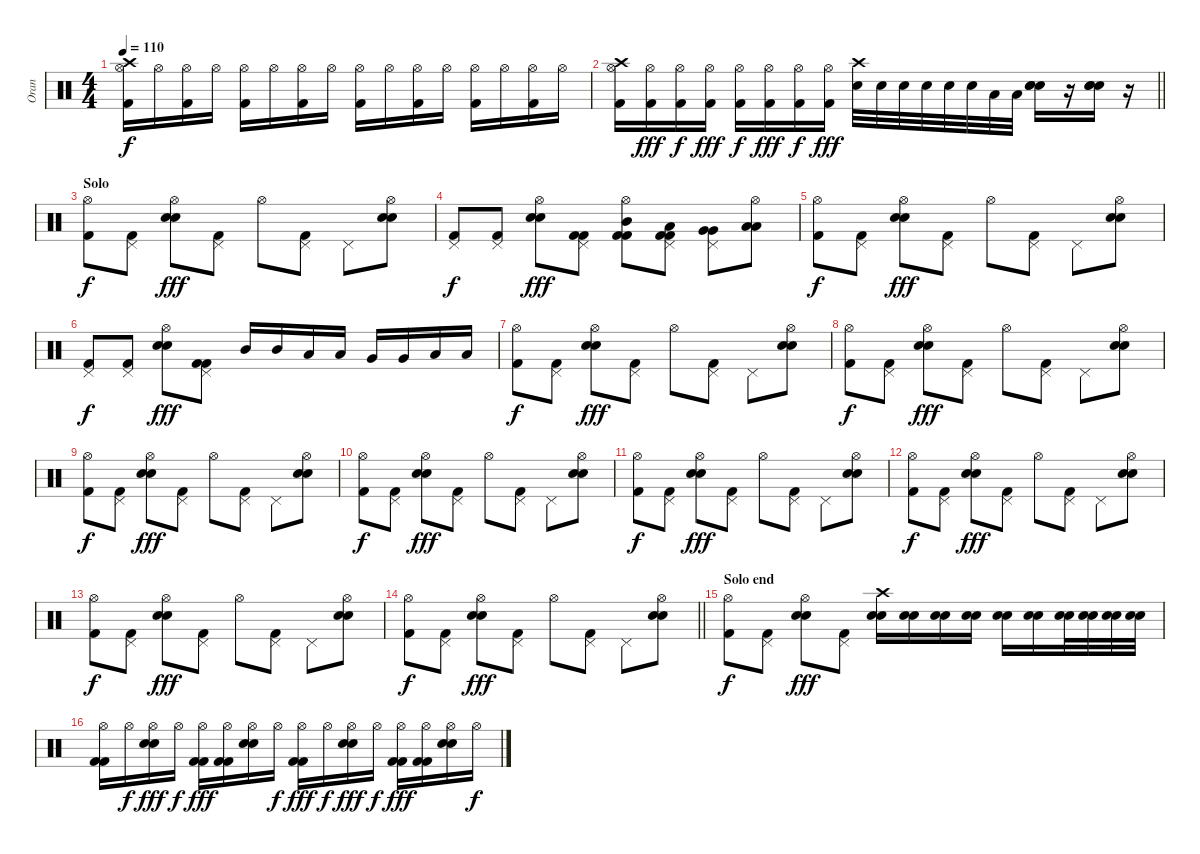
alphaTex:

\track ("Oran" "Oran") {instrument percussion}
\staff {score}
\articulation defaults
\ts (4 4)
\tempo 110
\clef neutral
\ks c
("Hi-Hat (open)" "Crash high (hit)" "Kick (hit) 2").16{dy f} "Hi-Hat (open)".16 ("Hi-Hat (open)" "Kick (hit) 2").16 "Hi-Hat (open)".16 ("Hi-Hat (open)" "Kick (hit) 2").16 "Hi-Hat (open)".16 ("Hi-Hat (open)" "Kick (hit) 2").16 "Hi-Hat (open)".16 ("Hi-Hat (open)" "Kick (hit) 2").16 "Hi-Hat (open)".16 ("Hi-Hat (open)" "Kick (hit) 2").16 "Hi-Hat (open)".16 ("Hi-Hat (open)" "Kick (hit) 2").16 "Hi-Hat (open)".16 ("Hi-Hat (open)" "Kick (hit) 2").16 "Hi-Hat (open)".16 |
\barLineRight lightlight
("Hi-Hat (open)" "Crash high (hit)" "Kick (hit) 2").16 ("Hi-Hat (open)" "Kick (hit) 2").16{dy fff} ("Hi-Hat (open)" "Kick (hit) 2").16{dy f} ("Hi-Hat (open)" "Kick (hit) 2").16{dy fff} ("Hi-Hat (open)" "Kick (hit) 2").16{dy f} ("Hi-Hat (open)" "Kick (hit) 2").16{dy fff} ("Hi-Hat (open)" "Kick (hit) 2").16{dy f} ("Hi-Hat (open)" "Kick (hit) 2").16{dy fff} ("Crash high (hit)" "Electric Snare (hit)").32 "Electric Snare (hit)".32 "Snare (hit) 2".32 "Snare (hit) 2".32 "Electric Snare (hit)".32 "Electric Snare (hit)".32 "Low Tom (hit)".32 "Low Tom (hit)".32 ("Electric Snare (hit)" "Electric Snare (hit)" "Snare (hit) 2").16 r.16 ("Electric Snare (hit)" "Electric Snare (hit)" "Electric Snare (hit)").16 r.16 |
\section ("" "Solo")
("Hi-Hat (open)" "Kick (hit) 2").8{dy f} ("Pedal Hi-Hat (hit)" "Kick (hit) 2").8 ("Hi-Hat (open)" "Electric Snare (hit)" "Snare (hit) 2").8{dy fff} ("Pedal Hi-Hat (hit)" "Kick (hit) 2").8 "Hi-Hat (open)".8 ("Pedal Hi-Hat (hit)" "Kick (hit) 2").8 "Pedal Hi-Hat (hit)".8 ("Hi-Hat (open)" "Electric Snare (hit)" "Snare (hit) 2").8 |
("Pedal Hi-Hat (hit)" "Kick (hit) 2").8{dy f} ("Pedal Hi-Hat (hit)" "Kick (hit) 2").8 ("Hi-Hat (open)" "Snare (hit) 2" "Electric Snare (hit)").8{dy fff} ("Pedal Hi-Hat (hit)" "Kick (hit) 2" "Kick (hit) 2").8 ("Hi-Hat (open)" "Mid Tom (hit)" "Kick (hit) 2" "Kick (hit) 2").8 ("Pedal Hi-Hat (hit)" "Low Tom (hit)" "Kick (hit) 2" "Kick (hit) 2").8 ("Pedal Hi-Hat (hit)" "Very Low Tom (hit)" "Very Low Tom (hit)").8 ("Hi-Hat (open)" "Low Floor Tom (hit)" "Low Floor Tom (hit)").8 |
("Hi-Hat (open)" "Kick (hit) 2").8{dy f} ("Pedal Hi-Hat (hit)" "Kick (hit) 2").8 ("Hi-Hat (open)" "Electric Snare (hit)" "Snare (hit) 2").8{dy fff} ("Pedal Hi-Hat (hit)" "Kick (hit) 2").8 "Hi-Hat (open)".8 ("Pedal Hi-Hat (hit)" "Kick (hit) 2").8 "Pedal Hi-Hat (hit)".8 ("Hi-Hat (open)" "Electric Snare (hit)" "Snare (hit) 2").8 |
("Pedal Hi-Hat (hit)" "Kick (hit) 2").8{dy f} ("Pedal Hi-Hat (hit)" "Kick (hit) 2").8 ("Hi-Hat (open)" "Snare (hit) 2" "Electric Snare (hit)").8{dy fff} ("Pedal Hi-Hat (hit)" "Kick (hit) 2" "Kick (hit) 2").8 "Mid Tom (hit)".16 "Mid Tom (hit)".16 "Low Tom (hit)".16 "Low Tom (hit)".16 "Very Low Tom (hit)".16 "Very Low Tom (hit)".16 "Low Floor Tom (hit)".16 "Low Floor Tom (hit)".16 |
("Hi-Hat (open)" "Kick (hit) 2").8{dy f} ("Pedal Hi-Hat (hit)" "Kick (hit) 2").8 ("Hi-Hat (open)" "Electric Snare (hit)" "Snare (hit) 2").8{dy fff} ("Pedal Hi-Hat (hit)" "Kick (hit) 2").8 "Hi-Hat (open)".8 ("Pedal Hi-Hat (hit)" "Kick (hit) 2").8 "Pedal Hi-Hat (hit)".8 ("Hi-Hat (open)" "Electric Snare (hit)" "Snare (hit) 2").8 |
("Hi-Hat (open)" "Kick (hit) 2").8{dy f} ("Pedal Hi-Hat (hit)" "Kick (hit) 2").8 ("Hi-Hat (open)" "Electric Snare (hit)" "Snare (hit) 2").8{dy fff} ("Pedal Hi-Hat (hit)" "Kick (hit) 2").8 "Hi-Hat (open)".8 ("Pedal Hi-Hat (hit)" "Kick (hit) 2").8 "Pedal Hi-Hat (hit)".8 ("Hi-Hat (open)" "Electric Snare (hit)" "Snare (hit) 2").8 |
("Hi-Hat (open)" "Kick (hit) 2").8{dy f} ("Pedal Hi-Hat (hit)" "Kick (hit) 2").8 ("Hi-Hat (open)" "Electric Snare (hit)" "Snare (hit) 2").8{dy fff} ("Pedal Hi-Hat (hit)" "Kick (hit) 2").8 "Hi-Hat (open)".8 ("Pedal Hi-Hat (hit)" "Kick (hit) 2").8 "Pedal Hi-Hat (hit)".8 ("Hi-Hat (open)" "Electric Snare (hit)" "Snare (hit) 2").8 |
("Hi-Hat (open)" "Kick (hit) 2").8{dy f} ("Pedal Hi-Hat (hit)" "Kick (hit) 2").8 ("Hi-Hat (open)" "Electric Snare (hit)" "Snare (hit) 2").8{dy fff} ("Pedal Hi-Hat (hit)" "Kick (hit) 2").8 "Hi-Hat (open)".8 ("Pedal Hi-Hat (hit)" "Kick (hit) 2").8 "Pedal Hi-Hat (hit)".8 ("Hi-Hat (open)" "Electric Snare (hit)" "Snare (hit) 2").8 |
("Hi-Hat (open)" "Kick (hit) 2").8{dy f} ("Pedal Hi-Hat (hit)" "Kick (hit) 2").8 ("Hi-Hat (open)" "Electric Snare (hit)" "Snare (hit) 2").8{dy fff} ("Pedal Hi-Hat (hit)" "Kick (hit) 2").8 "Hi-Hat (open)".8 ("Pedal Hi-Hat (hit)" "Kick (hit) 2").8 "Pedal Hi-Hat (hit)".8 ("Hi-Hat (open)" "Electric Snare (hit)" "Snare (hit) 2").8 |
("Hi-Hat (open)" "Kick (hit) 2").8{dy f} ("Pedal Hi-Hat (hit)" "Kick (hit) 2").8 ("Hi-Hat (open)" "Electric Snare (hit)" "Snare (hit) 2").8{dy fff} ("Pedal Hi-Hat (hit)" "Kick (hit) 2").8 "Hi-Hat (open)".8 ("Pedal Hi-Hat (hit)" "Kick (hit) 2").8 "Pedal Hi-Hat (hit)".8 ("Hi-Hat (open)" "Electric Snare (hit)" "Snare (hit) 2").8 |
("Hi-Hat (open)" "Kick (hit) 2").8{dy f} ("Pedal Hi-Hat (hit)" "Kick (hit) 2").8 ("Hi-Hat (open)" "Electric Snare (hit)" "Snare (hit) 2").8{dy fff} ("Pedal Hi-Hat (hit)" "Kick (hit) 2").8 "Hi-Hat (open)".8 ("Pedal Hi-Hat (hit)" "Kick (hit) 2").8 "Pedal Hi-Hat (hit)".8 ("Hi-Hat (open)" "Electric Snare (hit)" "Snare (hit) 2").8 |
\barLineRight lightlight
("Hi-Hat (open)" "Kick (hit) 2").8{dy f} ("Pedal Hi-Hat (hit)" "Kick (hit) 2").8 ("Hi-Hat (open)" "Electric Snare (hit)" "Snare (hit) 2").8{dy fff} ("Pedal Hi-Hat (hit)" "Kick (hit) 2").8 "Hi-Hat (open)".8 ("Pedal Hi-Hat (hit)" "Kick (hit) 2").8 "Pedal Hi-Hat (hit)".8 ("Hi-Hat (open)" "Electric Snare (hit)" "Snare (hit) 2").8 |
\section ("" "Solo end")
("Hi-Hat (open)" "Kick (hit) 2").8{dy f} ("Pedal Hi-Hat (hit)" "Kick (hit) 2").8 ("Hi-Hat (open)" "Electric Snare (hit)" "Snare (hit) 2").8{dy fff} ("Pedal Hi-Hat (hit)" "Kick (hit) 2").8 ("Crash high (hit)" "Snare (hit) 2" "Electric Snare (hit)").16 ("Snare (hit) 2" "Electric Snare (hit)").16 ("Snare (hit) 2" "Electric Snare (hit)").16 ("Snare (hit) 2" "Electric Snare (hit)").16 ("Snare (hit) 2" "Electric Snare (hit)").16 ("Snare (hit) 2" "Electric Snare (hit)").16 ("Snare (hit) 2" "Electric Snare (hit)").32 ("Snare (hit) 2" "Electric Snare (hit)").32 ("Snare (hit) 2" "Electric Snare (hit)").32 ("Snare (hit) 2" "Electric Snare (hit)").32 |
("Hi-Hat (open)" "Kick (hit) 2" "Kick (hit) 2").16 "Hi-Hat (open)".16{dy f} ("Hi-Hat (open)" "Snare (hit) 2" "Electric Snare (hit)").16{dy fff} "Hi-Hat (open)".16{dy f} ("Hi-Hat (open)" "Kick (hit) 2" "Kick (hit) 2").16{dy fff} ("Hi-Hat (open)" "Kick (hit) 2" "Kick (hit) 2").16 ("Hi-Hat (open)" "Snare (hit) 2" "Electric Snare (hit)").16 "Hi-Hat (open)".16{dy f} ("Hi-Hat (open)" "Kick (hit) 2" "Kick (hit) 2").16{dy fff} "Hi-Hat (open)".16{dy f} ("Hi-Hat (open)" "Snare (hit) 2" "Electric Snare (hit)").16{dy fff} "Hi-Hat (open)".16{dy f} ("Hi-Hat (open)" "Kick (hit) 2" "Kick (hit) 2").16{dy fff} ("Hi-Hat (open)" "Kick (hit) 2" "Kick (hit) 2").16 ("Hi-Hat (open)" "Snare (hit) 2" "Electric Snare (hit)").16 "Hi-Hat (open)".16{dy f}
